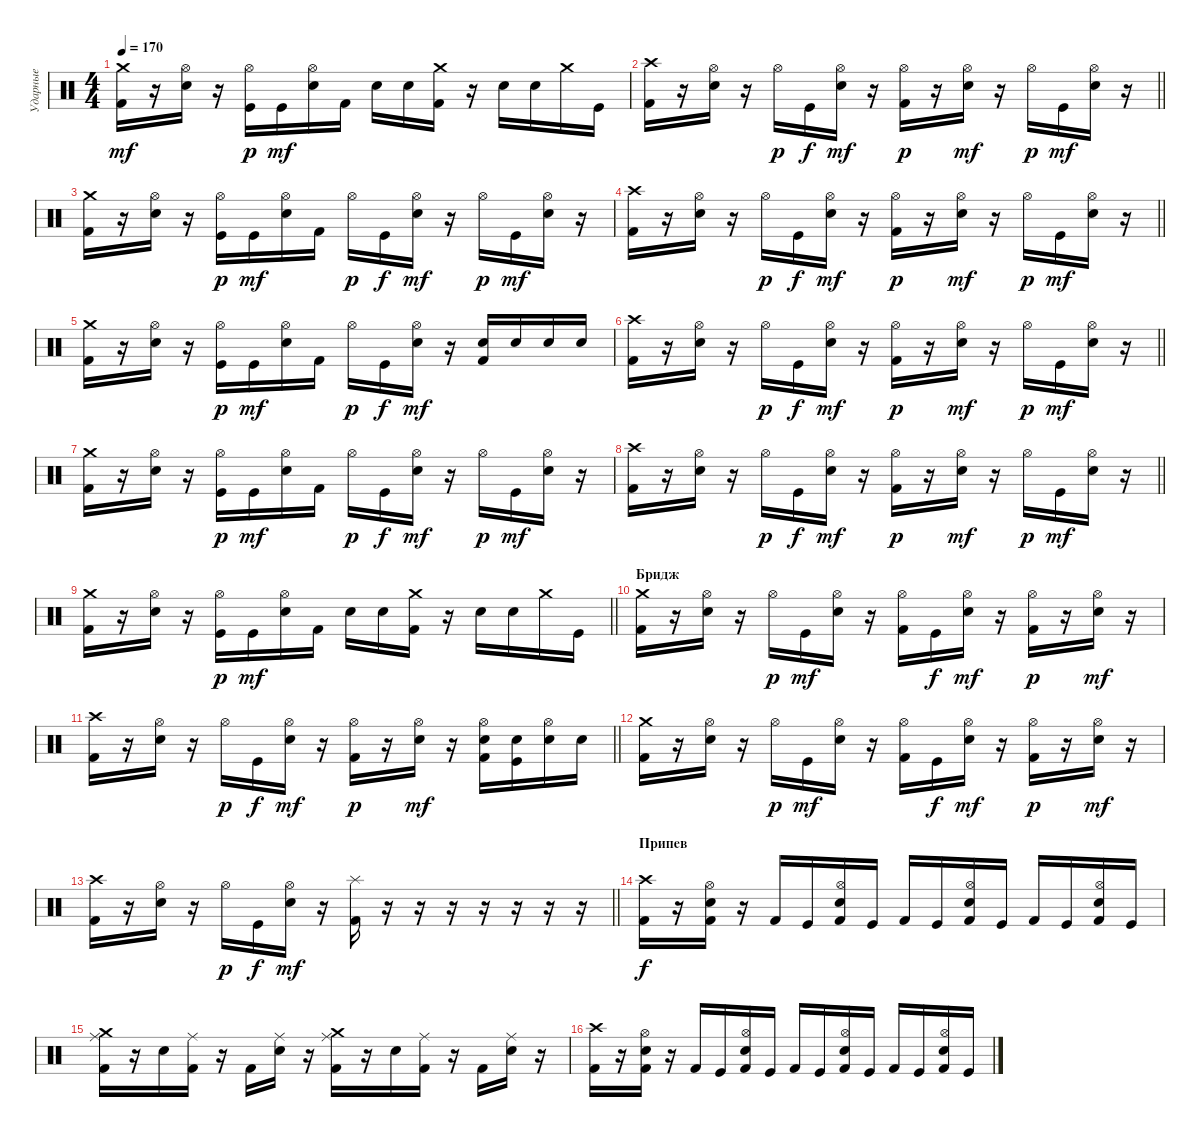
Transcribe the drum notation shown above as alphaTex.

\track ("Ударные" "Ударные") {instrument percussion}
\staff {score}
\articulation defaults
\ts (4 4)
\tempo 170
\clef neutral
\ks c
("Crash medium (hit)" "Kick (hit) 2").16{dy mf} r.16 ("Hi-Hat (open)" "Electric Snare (hit)").16 r.16 ("Hi-Hat (open)" "Kick (hit)").16{dy p} "Kick (hit)".16{dy mf} ("Hi-Hat (open)" "Electric Snare (hit)").16 "Kick (hit) 2".16 "Electric Snare (hit)".16 "Electric Snare (hit)".16 ("Crash medium (hit)" "Kick (hit) 2").16 r.16 "Electric Snare (hit)".16 "Electric Snare (hit)".16 "Crash medium (hit)".16 "Kick (hit)".16 |
\barLineRight lightlight
("Crash high (hit)" "Kick (hit) 2").16 r.16 ("Hi-Hat (open)" "Electric Snare (hit)").16 r.16 "Hi-Hat (open)".16{dy p} "Kick (hit)".16{dy f} ("Hi-Hat (open)" "Electric Snare (hit)").16{dy mf} r.16 ("Hi-Hat (open)" "Kick (hit) 2").16{dy p} r.16 ("Hi-Hat (open)" "Electric Snare (hit)").16{dy mf} r.16 "Hi-Hat (open)".16{dy p} "Kick (hit)".16{dy mf} ("Hi-Hat (open)" "Electric Snare (hit)").16 r.16 |
("Crash medium (hit)" "Kick (hit) 2").16 r.16 ("Hi-Hat (open)" "Electric Snare (hit)").16 r.16 ("Hi-Hat (open)" "Kick (hit)").16{dy p} "Kick (hit)".16{dy mf} ("Hi-Hat (open)" "Electric Snare (hit)").16 "Kick (hit) 2".16 "Hi-Hat (open)".16{dy p} "Kick (hit)".16{dy f} ("Hi-Hat (open)" "Electric Snare (hit)").16{dy mf} r.16 "Hi-Hat (open)".16{dy p} "Kick (hit)".16{dy mf} ("Hi-Hat (open)" "Electric Snare (hit)").16 r.16 |
\barLineRight lightlight
("Crash high (hit)" "Kick (hit) 2").16 r.16 ("Hi-Hat (open)" "Electric Snare (hit)").16 r.16 "Hi-Hat (open)".16{dy p} "Kick (hit)".16{dy f} ("Hi-Hat (open)" "Electric Snare (hit)").16{dy mf} r.16 ("Hi-Hat (open)" "Kick (hit) 2").16{dy p} r.16 ("Hi-Hat (open)" "Electric Snare (hit)").16{dy mf} r.16 "Hi-Hat (open)".16{dy p} "Kick (hit)".16{dy mf} ("Hi-Hat (open)" "Electric Snare (hit)").16 r.16 |
("Crash medium (hit)" "Kick (hit) 2").16 r.16 ("Hi-Hat (open)" "Electric Snare (hit)").16 r.16 ("Hi-Hat (open)" "Kick (hit)").16{dy p} "Kick (hit)".16{dy mf} ("Hi-Hat (open)" "Electric Snare (hit)").16 "Kick (hit) 2".16 "Hi-Hat (open)".16{dy p} "Kick (hit)".16{dy f} ("Hi-Hat (open)" "Electric Snare (hit)").16{dy mf} r.16 ("Electric Snare (hit)" "Kick (hit) 2").16 "Electric Snare (hit)".16 "Electric Snare (hit)".16 "Electric Snare (hit)".16 |
\barLineRight lightlight
("Crash high (hit)" "Kick (hit) 2").16 r.16 ("Hi-Hat (open)" "Electric Snare (hit)").16 r.16 "Hi-Hat (open)".16{dy p} "Kick (hit)".16{dy f} ("Hi-Hat (open)" "Electric Snare (hit)").16{dy mf} r.16 ("Hi-Hat (open)" "Kick (hit) 2").16{dy p} r.16 ("Hi-Hat (open)" "Electric Snare (hit)").16{dy mf} r.16 "Hi-Hat (open)".16{dy p} "Kick (hit)".16{dy mf} ("Hi-Hat (open)" "Electric Snare (hit)").16 r.16 |
("Crash medium (hit)" "Kick (hit) 2").16 r.16 ("Hi-Hat (open)" "Electric Snare (hit)").16 r.16 ("Hi-Hat (open)" "Kick (hit)").16{dy p} "Kick (hit)".16{dy mf} ("Hi-Hat (open)" "Electric Snare (hit)").16 "Kick (hit) 2".16 "Hi-Hat (open)".16{dy p} "Kick (hit)".16{dy f} ("Hi-Hat (open)" "Electric Snare (hit)").16{dy mf} r.16 "Hi-Hat (open)".16{dy p} "Kick (hit)".16{dy mf} ("Hi-Hat (open)" "Electric Snare (hit)").16 r.16 |
\barLineRight lightlight
("Crash high (hit)" "Kick (hit) 2").16 r.16 ("Hi-Hat (open)" "Electric Snare (hit)").16 r.16 "Hi-Hat (open)".16{dy p} "Kick (hit)".16{dy f} ("Hi-Hat (open)" "Electric Snare (hit)").16{dy mf} r.16 ("Hi-Hat (open)" "Kick (hit) 2").16{dy p} r.16 ("Hi-Hat (open)" "Electric Snare (hit)").16{dy mf} r.16 "Hi-Hat (open)".16{dy p} "Kick (hit)".16{dy mf} ("Hi-Hat (open)" "Electric Snare (hit)").16 r.16 |
\barLineRight lightlight
("Crash medium (hit)" "Kick (hit) 2").16 r.16 ("Hi-Hat (open)" "Electric Snare (hit)").16 r.16 ("Hi-Hat (open)" "Kick (hit)").16{dy p} "Kick (hit)".16{dy mf} ("Hi-Hat (open)" "Electric Snare (hit)").16 "Kick (hit) 2".16 "Electric Snare (hit)".16 "Electric Snare (hit)".16 ("Crash medium (hit)" "Kick (hit) 2").16 r.16 "Electric Snare (hit)".16 "Electric Snare (hit)".16 "Crash medium (hit)".16 "Kick (hit)".16 |
\section ("" "Бридж")
("Crash medium (hit)" "Kick (hit) 2").16 r.16 ("Hi-Hat (open)" "Electric Snare (hit)").16 r.16 "Hi-Hat (open)".16{dy p} "Kick (hit)".16{dy mf} ("Hi-Hat (open)" "Electric Snare (hit)").16 r.16 ("Hi-Hat (open)" "Kick (hit) 2").16 "Kick (hit)".16{dy f} ("Hi-Hat (open)" "Electric Snare (hit)").16{dy mf} r.16 ("Hi-Hat (open)" "Kick (hit) 2").16{dy p} r.16 ("Hi-Hat (open)" "Electric Snare (hit)").16{dy mf} r.16 |
\barLineRight lightlight
("Crash high (hit)" "Kick (hit) 2").16 r.16 ("Hi-Hat (open)" "Electric Snare (hit)").16 r.16 "Hi-Hat (open)".16{dy p} "Kick (hit)".16{dy f} ("Hi-Hat (open)" "Electric Snare (hit)").16{dy mf} r.16 ("Hi-Hat (open)" "Kick (hit) 2").16{dy p} r.16 ("Hi-Hat (open)" "Electric Snare (hit)").16{dy mf} r.16 ("Hi-Hat (open)" "Electric Snare (hit)" "Kick (hit) 2").16 ("Electric Snare (hit)" "Kick (hit)").16 ("Hi-Hat (open)" "Electric Snare (hit)").16 "Electric Snare (hit)".16 |
("Crash medium (hit)" "Kick (hit) 2").16 r.16 ("Hi-Hat (open)" "Electric Snare (hit)").16 r.16 "Hi-Hat (open)".16{dy p} "Kick (hit)".16{dy mf} ("Hi-Hat (open)" "Electric Snare (hit)").16 r.16 ("Hi-Hat (open)" "Kick (hit) 2").16 "Kick (hit)".16{dy f} ("Hi-Hat (open)" "Electric Snare (hit)").16{dy mf} r.16 ("Hi-Hat (open)" "Kick (hit) 2").16{dy p} r.16 ("Hi-Hat (open)" "Electric Snare (hit)").16{dy mf} r.16 |
\barLineRight lightlight
("Crash high (hit)" "Kick (hit) 2").16 r.16 ("Hi-Hat (open)" "Electric Snare (hit)").16 r.16 "Hi-Hat (open)".16{dy p} "Kick (hit)".16{dy f} ("Hi-Hat (open)" "Electric Snare (hit)").16{dy mf} r.16 ("Splash (hit)" "Kick (hit) 2").16 r.16 r.16 r.16 r.16 r.16 r.16 r.16 |
\section ("" "Припев")
("Crash high (hit)" "Kick (hit) 2").16{dy f} r.16 ("Hi-Hat (open)" "Electric Snare (hit)" "Kick (hit) 2").16 r.16 "Kick (hit) 2".16 "Kick (hit)".16 ("Hi-Hat (open)" "Electric Snare (hit)" "Kick (hit) 2").16 "Kick (hit)".16 "Kick (hit) 2".16 "Kick (hit)".16 ("Hi-Hat (open)" "Electric Snare (hit)" "Kick (hit) 2").16 "Kick (hit)".16 "Kick (hit) 2".16 "Kick (hit)".16 ("Hi-Hat (open)" "Electric Snare (hit)" "Kick (hit) 2").16 "Kick (hit)".16 |
("Crash medium (hit)" "Ride (middle)" "Kick (hit) 2").16 r.16 "Electric Snare (hit)".16 ("Ride (middle)" "Kick (hit) 2").16 r.16 "Kick (hit) 2".16 ("Ride (middle)" "Electric Snare (hit)").16 r.16 ("Crash medium (hit)" "Ride (middle)" "Kick (hit) 2").16 r.16 "Electric Snare (hit)".16 ("Ride (middle)" "Kick (hit) 2").16 r.16 "Kick (hit) 2".16 ("Ride (middle)" "Electric Snare (hit)").16 r.16 |
("Crash high (hit)" "Kick (hit) 2").16 r.16 ("Hi-Hat (open)" "Electric Snare (hit)" "Kick (hit) 2").16 r.16 "Kick (hit) 2".16 "Kick (hit)".16 ("Hi-Hat (open)" "Electric Snare (hit)" "Kick (hit) 2").16 "Kick (hit)".16 "Kick (hit) 2".16 "Kick (hit)".16 ("Hi-Hat (open)" "Electric Snare (hit)" "Kick (hit) 2").16 "Kick (hit)".16 "Kick (hit) 2".16 "Kick (hit)".16 ("Hi-Hat (open)" "Electric Snare (hit)" "Kick (hit) 2").16 "Kick (hit)".16
